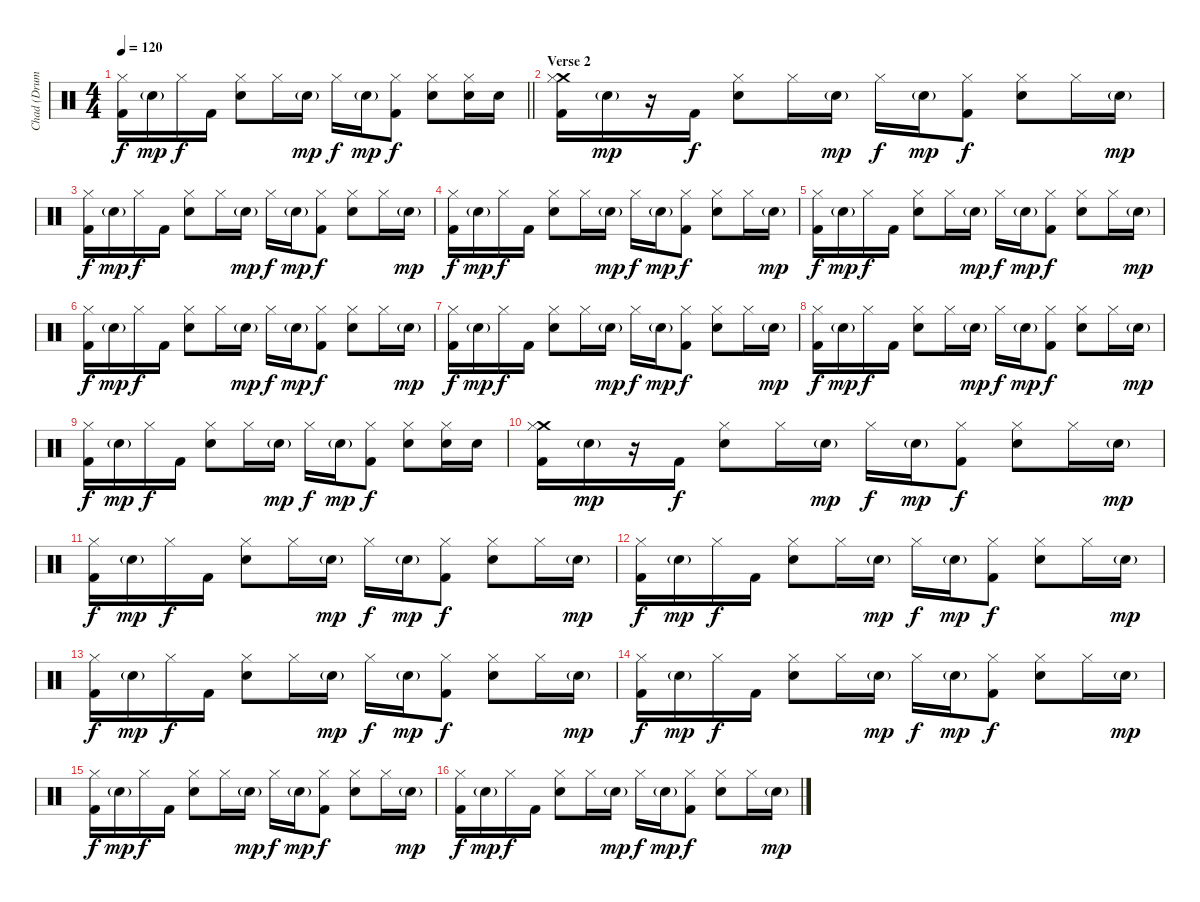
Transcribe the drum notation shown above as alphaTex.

\track ("Chad (Drums)" "Chad (Drum") {instrument percussion}
\staff {score}
\articulation defaults
\ts (4 4)
\tempo 120
\clef neutral
\barLineRight lightlight
\ks c
("Hi-Hat (closed)" "Kick (hit) 2").16{dy f} "Electric Snare (hit)"{g}.16{dy mp} "Hi-Hat (closed)".16{dy f} "Kick (hit) 2".16 ("Hi-Hat (closed)" "Electric Snare (hit)").8 "Hi-Hat (closed)".16 "Electric Snare (hit)"{g}.16{dy mp} "Hi-Hat (closed)".16{dy f} "Electric Snare (hit)"{g}.16{dy mp} ("Hi-Hat (closed)" "Kick (hit) 2").8{dy f} ("Hi-Hat (closed)" "Electric Snare (hit)").8 ("Hi-Hat (closed)" "Electric Snare (hit)").16 "Electric Snare (hit)".16 |
\section ("" "Verse 2")
("Crash medium (hit)" "Hi-Hat (closed)" "Kick (hit) 2").16 "Electric Snare (hit)"{g}.16{dy mp} r.16 "Kick (hit) 2".16{dy f} ("Hi-Hat (closed)" "Electric Snare (hit)").8 "Hi-Hat (closed)".16 "Electric Snare (hit)"{g}.16{dy mp} "Hi-Hat (closed)".16{dy f} "Electric Snare (hit)"{g}.16{dy mp} ("Hi-Hat (closed)" "Kick (hit) 2").8{dy f} ("Hi-Hat (closed)" "Electric Snare (hit)").8 "Hi-Hat (closed)".16 "Electric Snare (hit)"{g}.16{dy mp} |
("Hi-Hat (closed)" "Kick (hit) 2").16{dy f} "Electric Snare (hit)"{g}.16{dy mp} "Hi-Hat (closed)".16{dy f} "Kick (hit) 2".16 ("Hi-Hat (closed)" "Electric Snare (hit)").8 "Hi-Hat (closed)".16 "Electric Snare (hit)"{g}.16{dy mp} "Hi-Hat (closed)".16{dy f} "Electric Snare (hit)"{g}.16{dy mp} ("Hi-Hat (closed)" "Kick (hit) 2").8{dy f} ("Hi-Hat (closed)" "Electric Snare (hit)").8 "Hi-Hat (closed)".16 "Electric Snare (hit)"{g}.16{dy mp} |
("Hi-Hat (closed)" "Kick (hit) 2").16{dy f} "Electric Snare (hit)"{g}.16{dy mp} "Hi-Hat (closed)".16{dy f} "Kick (hit) 2".16 ("Hi-Hat (closed)" "Electric Snare (hit)").8 "Hi-Hat (closed)".16 "Electric Snare (hit)"{g}.16{dy mp} "Hi-Hat (closed)".16{dy f} "Electric Snare (hit)"{g}.16{dy mp} ("Hi-Hat (closed)" "Kick (hit) 2").8{dy f} ("Hi-Hat (closed)" "Electric Snare (hit)").8 "Hi-Hat (closed)".16 "Electric Snare (hit)"{g}.16{dy mp} |
("Hi-Hat (closed)" "Kick (hit) 2").16{dy f} "Electric Snare (hit)"{g}.16{dy mp} "Hi-Hat (closed)".16{dy f} "Kick (hit) 2".16 ("Hi-Hat (closed)" "Electric Snare (hit)").8 "Hi-Hat (closed)".16 "Electric Snare (hit)"{g}.16{dy mp} "Hi-Hat (closed)".16{dy f} "Electric Snare (hit)"{g}.16{dy mp} ("Hi-Hat (closed)" "Kick (hit) 2").8{dy f} ("Hi-Hat (closed)" "Electric Snare (hit)").8 "Hi-Hat (closed)".16 "Electric Snare (hit)"{g}.16{dy mp} |
("Hi-Hat (closed)" "Kick (hit) 2").16{dy f} "Electric Snare (hit)"{g}.16{dy mp} "Hi-Hat (closed)".16{dy f} "Kick (hit) 2".16 ("Hi-Hat (closed)" "Electric Snare (hit)").8 "Hi-Hat (closed)".16 "Electric Snare (hit)"{g}.16{dy mp} "Hi-Hat (closed)".16{dy f} "Electric Snare (hit)"{g}.16{dy mp} ("Hi-Hat (closed)" "Kick (hit) 2").8{dy f} ("Hi-Hat (closed)" "Electric Snare (hit)").8 "Hi-Hat (closed)".16 "Electric Snare (hit)"{g}.16{dy mp} |
("Hi-Hat (closed)" "Kick (hit) 2").16{dy f} "Electric Snare (hit)"{g}.16{dy mp} "Hi-Hat (closed)".16{dy f} "Kick (hit) 2".16 ("Hi-Hat (closed)" "Electric Snare (hit)").8 "Hi-Hat (closed)".16 "Electric Snare (hit)"{g}.16{dy mp} "Hi-Hat (closed)".16{dy f} "Electric Snare (hit)"{g}.16{dy mp} ("Hi-Hat (closed)" "Kick (hit) 2").8{dy f} ("Hi-Hat (closed)" "Electric Snare (hit)").8 "Hi-Hat (closed)".16 "Electric Snare (hit)"{g}.16{dy mp} |
("Hi-Hat (closed)" "Kick (hit) 2").16{dy f} "Electric Snare (hit)"{g}.16{dy mp} "Hi-Hat (closed)".16{dy f} "Kick (hit) 2".16 ("Hi-Hat (closed)" "Electric Snare (hit)").8 "Hi-Hat (closed)".16 "Electric Snare (hit)"{g}.16{dy mp} "Hi-Hat (closed)".16{dy f} "Electric Snare (hit)"{g}.16{dy mp} ("Hi-Hat (closed)" "Kick (hit) 2").8{dy f} ("Hi-Hat (closed)" "Electric Snare (hit)").8 "Hi-Hat (closed)".16 "Electric Snare (hit)"{g}.16{dy mp} |
("Hi-Hat (closed)" "Kick (hit) 2").16{dy f} "Electric Snare (hit)"{g}.16{dy mp} "Hi-Hat (closed)".16{dy f} "Kick (hit) 2".16 ("Hi-Hat (closed)" "Electric Snare (hit)").8 "Hi-Hat (closed)".16 "Electric Snare (hit)"{g}.16{dy mp} "Hi-Hat (closed)".16{dy f} "Electric Snare (hit)"{g}.16{dy mp} ("Hi-Hat (closed)" "Kick (hit) 2").8{dy f} ("Hi-Hat (closed)" "Electric Snare (hit)").8 ("Hi-Hat (closed)" "Electric Snare (hit)").16 "Electric Snare (hit)".16 |
("Crash medium (hit)" "Hi-Hat (closed)" "Kick (hit) 2").16 "Electric Snare (hit)"{g}.16{dy mp} r.16 "Kick (hit) 2".16{dy f} ("Hi-Hat (closed)" "Electric Snare (hit)").8 "Hi-Hat (closed)".16 "Electric Snare (hit)"{g}.16{dy mp} "Hi-Hat (closed)".16{dy f} "Electric Snare (hit)"{g}.16{dy mp} ("Hi-Hat (closed)" "Kick (hit) 2").8{dy f} ("Hi-Hat (closed)" "Electric Snare (hit)").8 "Hi-Hat (closed)".16 "Electric Snare (hit)"{g}.16{dy mp} |
("Hi-Hat (closed)" "Kick (hit) 2").16{dy f} "Electric Snare (hit)"{g}.16{dy mp} "Hi-Hat (closed)".16{dy f} "Kick (hit) 2".16 ("Hi-Hat (closed)" "Electric Snare (hit)").8 "Hi-Hat (closed)".16 "Electric Snare (hit)"{g}.16{dy mp} "Hi-Hat (closed)".16{dy f} "Electric Snare (hit)"{g}.16{dy mp} ("Hi-Hat (closed)" "Kick (hit) 2").8{dy f} ("Hi-Hat (closed)" "Electric Snare (hit)").8 "Hi-Hat (closed)".16 "Electric Snare (hit)"{g}.16{dy mp} |
("Hi-Hat (closed)" "Kick (hit) 2").16{dy f} "Electric Snare (hit)"{g}.16{dy mp} "Hi-Hat (closed)".16{dy f} "Kick (hit) 2".16 ("Hi-Hat (closed)" "Electric Snare (hit)").8 "Hi-Hat (closed)".16 "Electric Snare (hit)"{g}.16{dy mp} "Hi-Hat (closed)".16{dy f} "Electric Snare (hit)"{g}.16{dy mp} ("Hi-Hat (closed)" "Kick (hit) 2").8{dy f} ("Hi-Hat (closed)" "Electric Snare (hit)").8 "Hi-Hat (closed)".16 "Electric Snare (hit)"{g}.16{dy mp} |
("Hi-Hat (closed)" "Kick (hit) 2").16{dy f} "Electric Snare (hit)"{g}.16{dy mp} "Hi-Hat (closed)".16{dy f} "Kick (hit) 2".16 ("Hi-Hat (closed)" "Electric Snare (hit)").8 "Hi-Hat (closed)".16 "Electric Snare (hit)"{g}.16{dy mp} "Hi-Hat (closed)".16{dy f} "Electric Snare (hit)"{g}.16{dy mp} ("Hi-Hat (closed)" "Kick (hit) 2").8{dy f} ("Hi-Hat (closed)" "Electric Snare (hit)").8 "Hi-Hat (closed)".16 "Electric Snare (hit)"{g}.16{dy mp} |
("Hi-Hat (closed)" "Kick (hit) 2").16{dy f} "Electric Snare (hit)"{g}.16{dy mp} "Hi-Hat (closed)".16{dy f} "Kick (hit) 2".16 ("Hi-Hat (closed)" "Electric Snare (hit)").8 "Hi-Hat (closed)".16 "Electric Snare (hit)"{g}.16{dy mp} "Hi-Hat (closed)".16{dy f} "Electric Snare (hit)"{g}.16{dy mp} ("Hi-Hat (closed)" "Kick (hit) 2").8{dy f} ("Hi-Hat (closed)" "Electric Snare (hit)").8 "Hi-Hat (closed)".16 "Electric Snare (hit)"{g}.16{dy mp} |
("Hi-Hat (closed)" "Kick (hit) 2").16{dy f} "Electric Snare (hit)"{g}.16{dy mp} "Hi-Hat (closed)".16{dy f} "Kick (hit) 2".16 ("Hi-Hat (closed)" "Electric Snare (hit)").8 "Hi-Hat (closed)".16 "Electric Snare (hit)"{g}.16{dy mp} "Hi-Hat (closed)".16{dy f} "Electric Snare (hit)"{g}.16{dy mp} ("Hi-Hat (closed)" "Kick (hit) 2").8{dy f} ("Hi-Hat (closed)" "Electric Snare (hit)").8 "Hi-Hat (closed)".16 "Electric Snare (hit)"{g}.16{dy mp} |
("Hi-Hat (closed)" "Kick (hit) 2").16{dy f} "Electric Snare (hit)"{g}.16{dy mp} "Hi-Hat (closed)".16{dy f} "Kick (hit) 2".16 ("Hi-Hat (closed)" "Electric Snare (hit)").8 "Hi-Hat (closed)".16 "Electric Snare (hit)"{g}.16{dy mp} "Hi-Hat (closed)".16{dy f} "Electric Snare (hit)"{g}.16{dy mp} ("Hi-Hat (closed)" "Kick (hit) 2").8{dy f} ("Hi-Hat (closed)" "Electric Snare (hit)").8 "Hi-Hat (closed)".16 "Electric Snare (hit)"{g}.16{dy mp}
